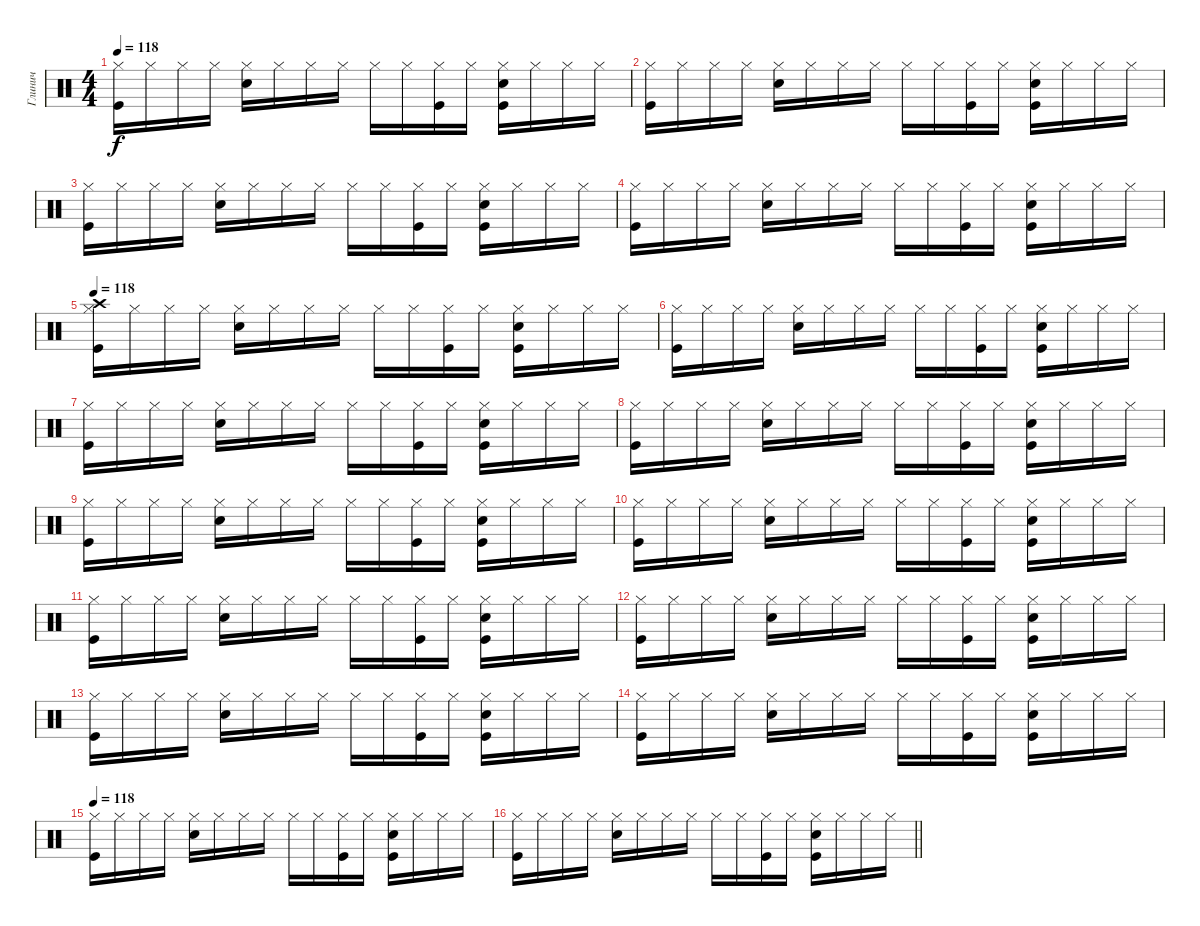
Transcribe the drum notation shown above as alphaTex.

\track ("Глинич" "Глинич") {instrument percussion}
\staff {score}
\articulation defaults
\ts (4 4)
\tempo 118
\clef neutral
\ks c
("Hi-Hat (closed)" "Kick (hit)").16{dy f} "Hi-Hat (closed)".16 "Hi-Hat (closed)".16 "Hi-Hat (closed)".16 ("Hi-Hat (closed)" "Snare (hit) 2").16 "Hi-Hat (closed)".16 "Hi-Hat (closed)".16 "Hi-Hat (closed)".16 "Hi-Hat (closed)".16 "Hi-Hat (closed)".16 ("Hi-Hat (closed)" "Kick (hit)").16 "Hi-Hat (closed)".16 ("Hi-Hat (closed)" "Snare (hit) 2" "Kick (hit)").16 "Hi-Hat (closed)".16 "Hi-Hat (closed)".16 "Hi-Hat (closed)".16 |
("Hi-Hat (closed)" "Kick (hit)").16 "Hi-Hat (closed)".16 "Hi-Hat (closed)".16 "Hi-Hat (closed)".16 ("Hi-Hat (closed)" "Snare (hit) 2").16 "Hi-Hat (closed)".16 "Hi-Hat (closed)".16 "Hi-Hat (closed)".16 "Hi-Hat (closed)".16 "Hi-Hat (closed)".16 ("Hi-Hat (closed)" "Kick (hit)").16 "Hi-Hat (closed)".16 ("Hi-Hat (closed)" "Snare (hit) 2" "Kick (hit)").16 "Hi-Hat (closed)".16 "Hi-Hat (closed)".16 "Hi-Hat (closed)".16 |
("Hi-Hat (closed)" "Kick (hit)").16 "Hi-Hat (closed)".16 "Hi-Hat (closed)".16 "Hi-Hat (closed)".16 ("Hi-Hat (closed)" "Snare (hit) 2").16 "Hi-Hat (closed)".16 "Hi-Hat (closed)".16 "Hi-Hat (closed)".16 "Hi-Hat (closed)".16 "Hi-Hat (closed)".16 ("Hi-Hat (closed)" "Kick (hit)").16 "Hi-Hat (closed)".16 ("Hi-Hat (closed)" "Snare (hit) 2" "Kick (hit)").16 "Hi-Hat (closed)".16 "Hi-Hat (closed)".16 "Hi-Hat (closed)".16 |
("Hi-Hat (closed)" "Kick (hit)").16 "Hi-Hat (closed)".16 "Hi-Hat (closed)".16 "Hi-Hat (closed)".16 ("Hi-Hat (closed)" "Snare (hit) 2").16 "Hi-Hat (closed)".16 "Hi-Hat (closed)".16 "Hi-Hat (closed)".16 "Hi-Hat (closed)".16 "Hi-Hat (closed)".16 ("Hi-Hat (closed)" "Kick (hit)").16 "Hi-Hat (closed)".16 ("Hi-Hat (closed)" "Snare (hit) 2" "Kick (hit)").16 "Hi-Hat (closed)".16 "Hi-Hat (closed)".16 "Hi-Hat (closed)".16 |
\tempo 118
("Hi-Hat (closed)" "Kick (hit)" "Crash high (hit)").16 "Hi-Hat (closed)".16 "Hi-Hat (closed)".16 "Hi-Hat (closed)".16 ("Hi-Hat (closed)" "Snare (hit) 2").16 "Hi-Hat (closed)".16 "Hi-Hat (closed)".16 "Hi-Hat (closed)".16 "Hi-Hat (closed)".16 "Hi-Hat (closed)".16 ("Hi-Hat (closed)" "Kick (hit)").16 "Hi-Hat (closed)".16 ("Hi-Hat (closed)" "Snare (hit) 2" "Kick (hit)").16 "Hi-Hat (closed)".16 "Hi-Hat (closed)".16 "Hi-Hat (closed)".16 |
("Hi-Hat (closed)" "Kick (hit)").16 "Hi-Hat (closed)".16 "Hi-Hat (closed)".16 "Hi-Hat (closed)".16 ("Hi-Hat (closed)" "Snare (hit) 2").16 "Hi-Hat (closed)".16 "Hi-Hat (closed)".16 "Hi-Hat (closed)".16 "Hi-Hat (closed)".16 "Hi-Hat (closed)".16 ("Hi-Hat (closed)" "Kick (hit)").16 "Hi-Hat (closed)".16 ("Hi-Hat (closed)" "Snare (hit) 2" "Kick (hit)").16 "Hi-Hat (closed)".16 "Hi-Hat (closed)".16 "Hi-Hat (closed)".16 |
("Hi-Hat (closed)" "Kick (hit)").16 "Hi-Hat (closed)".16 "Hi-Hat (closed)".16 "Hi-Hat (closed)".16 ("Hi-Hat (closed)" "Snare (hit) 2").16 "Hi-Hat (closed)".16 "Hi-Hat (closed)".16 "Hi-Hat (closed)".16 "Hi-Hat (closed)".16 "Hi-Hat (closed)".16 ("Hi-Hat (closed)" "Kick (hit)").16 "Hi-Hat (closed)".16 ("Hi-Hat (closed)" "Snare (hit) 2" "Kick (hit)").16 "Hi-Hat (closed)".16 "Hi-Hat (closed)".16 "Hi-Hat (closed)".16 |
("Hi-Hat (closed)" "Kick (hit)").16 "Hi-Hat (closed)".16 "Hi-Hat (closed)".16 "Hi-Hat (closed)".16 ("Hi-Hat (closed)" "Snare (hit) 2").16 "Hi-Hat (closed)".16 "Hi-Hat (closed)".16 "Hi-Hat (closed)".16 "Hi-Hat (closed)".16 "Hi-Hat (closed)".16 ("Hi-Hat (closed)" "Kick (hit)").16 "Hi-Hat (closed)".16 ("Hi-Hat (closed)" "Snare (hit) 2" "Kick (hit)").16 "Hi-Hat (closed)".16 "Hi-Hat (closed)".16 "Hi-Hat (closed)".16 |
("Hi-Hat (closed)" "Kick (hit)").16 "Hi-Hat (closed)".16 "Hi-Hat (closed)".16 "Hi-Hat (closed)".16 ("Hi-Hat (closed)" "Snare (hit) 2").16 "Hi-Hat (closed)".16 "Hi-Hat (closed)".16 "Hi-Hat (closed)".16 "Hi-Hat (closed)".16 "Hi-Hat (closed)".16 ("Hi-Hat (closed)" "Kick (hit)").16 "Hi-Hat (closed)".16 ("Hi-Hat (closed)" "Snare (hit) 2" "Kick (hit)").16 "Hi-Hat (closed)".16 "Hi-Hat (closed)".16 "Hi-Hat (closed)".16 |
("Hi-Hat (closed)" "Kick (hit)").16 "Hi-Hat (closed)".16 "Hi-Hat (closed)".16 "Hi-Hat (closed)".16 ("Hi-Hat (closed)" "Snare (hit) 2").16 "Hi-Hat (closed)".16 "Hi-Hat (closed)".16 "Hi-Hat (closed)".16 "Hi-Hat (closed)".16 "Hi-Hat (closed)".16 ("Hi-Hat (closed)" "Kick (hit)").16 "Hi-Hat (closed)".16 ("Hi-Hat (closed)" "Snare (hit) 2" "Kick (hit)").16 "Hi-Hat (closed)".16 "Hi-Hat (closed)".16 "Hi-Hat (closed)".16 |
("Hi-Hat (closed)" "Kick (hit)").16 "Hi-Hat (closed)".16 "Hi-Hat (closed)".16 "Hi-Hat (closed)".16 ("Hi-Hat (closed)" "Snare (hit) 2").16 "Hi-Hat (closed)".16 "Hi-Hat (closed)".16 "Hi-Hat (closed)".16 "Hi-Hat (closed)".16 "Hi-Hat (closed)".16 ("Hi-Hat (closed)" "Kick (hit)").16 "Hi-Hat (closed)".16 ("Hi-Hat (closed)" "Snare (hit) 2" "Kick (hit)").16 "Hi-Hat (closed)".16 "Hi-Hat (closed)".16 "Hi-Hat (closed)".16 |
("Hi-Hat (closed)" "Kick (hit)").16 "Hi-Hat (closed)".16 "Hi-Hat (closed)".16 "Hi-Hat (closed)".16 ("Hi-Hat (closed)" "Snare (hit) 2").16 "Hi-Hat (closed)".16 "Hi-Hat (closed)".16 "Hi-Hat (closed)".16 "Hi-Hat (closed)".16 "Hi-Hat (closed)".16 ("Hi-Hat (closed)" "Kick (hit)").16 "Hi-Hat (closed)".16 ("Hi-Hat (closed)" "Snare (hit) 2" "Kick (hit)").16 "Hi-Hat (closed)".16 "Hi-Hat (closed)".16 "Hi-Hat (closed)".16 |
("Hi-Hat (closed)" "Kick (hit)").16 "Hi-Hat (closed)".16 "Hi-Hat (closed)".16 "Hi-Hat (closed)".16 ("Hi-Hat (closed)" "Snare (hit) 2").16 "Hi-Hat (closed)".16 "Hi-Hat (closed)".16 "Hi-Hat (closed)".16 "Hi-Hat (closed)".16 "Hi-Hat (closed)".16 ("Hi-Hat (closed)" "Kick (hit)").16 "Hi-Hat (closed)".16 ("Hi-Hat (closed)" "Snare (hit) 2" "Kick (hit)").16 "Hi-Hat (closed)".16 "Hi-Hat (closed)".16 "Hi-Hat (closed)".16 |
("Hi-Hat (closed)" "Kick (hit)").16 "Hi-Hat (closed)".16 "Hi-Hat (closed)".16 "Hi-Hat (closed)".16 ("Hi-Hat (closed)" "Snare (hit) 2").16 "Hi-Hat (closed)".16 "Hi-Hat (closed)".16 "Hi-Hat (closed)".16 "Hi-Hat (closed)".16 "Hi-Hat (closed)".16 ("Hi-Hat (closed)" "Kick (hit)").16 "Hi-Hat (closed)".16 ("Hi-Hat (closed)" "Snare (hit) 2" "Kick (hit)").16 "Hi-Hat (closed)".16 "Hi-Hat (closed)".16 "Hi-Hat (closed)".16 |
\tempo 118
("Hi-Hat (closed)" "Kick (hit)").16 "Hi-Hat (closed)".16 "Hi-Hat (closed)".16 "Hi-Hat (closed)".16 ("Hi-Hat (closed)" "Snare (hit) 2").16 "Hi-Hat (closed)".16 "Hi-Hat (closed)".16 "Hi-Hat (closed)".16 "Hi-Hat (closed)".16 "Hi-Hat (closed)".16 ("Hi-Hat (closed)" "Kick (hit)").16 "Hi-Hat (closed)".16 ("Hi-Hat (closed)" "Snare (hit) 2" "Kick (hit)").16 "Hi-Hat (closed)".16 "Hi-Hat (closed)".16 "Hi-Hat (closed)".16 |
\barLineRight lightlight
("Hi-Hat (closed)" "Kick (hit)").16 "Hi-Hat (closed)".16 "Hi-Hat (closed)".16 "Hi-Hat (closed)".16 ("Hi-Hat (closed)" "Snare (hit) 2").16 "Hi-Hat (closed)".16 "Hi-Hat (closed)".16 "Hi-Hat (closed)".16 "Hi-Hat (closed)".16 "Hi-Hat (closed)".16 ("Hi-Hat (closed)" "Kick (hit)").16 "Hi-Hat (closed)".16 ("Hi-Hat (closed)" "Snare (hit) 2" "Kick (hit)").16 "Hi-Hat (closed)".16 "Hi-Hat (closed)".16 "Hi-Hat (closed)".16
